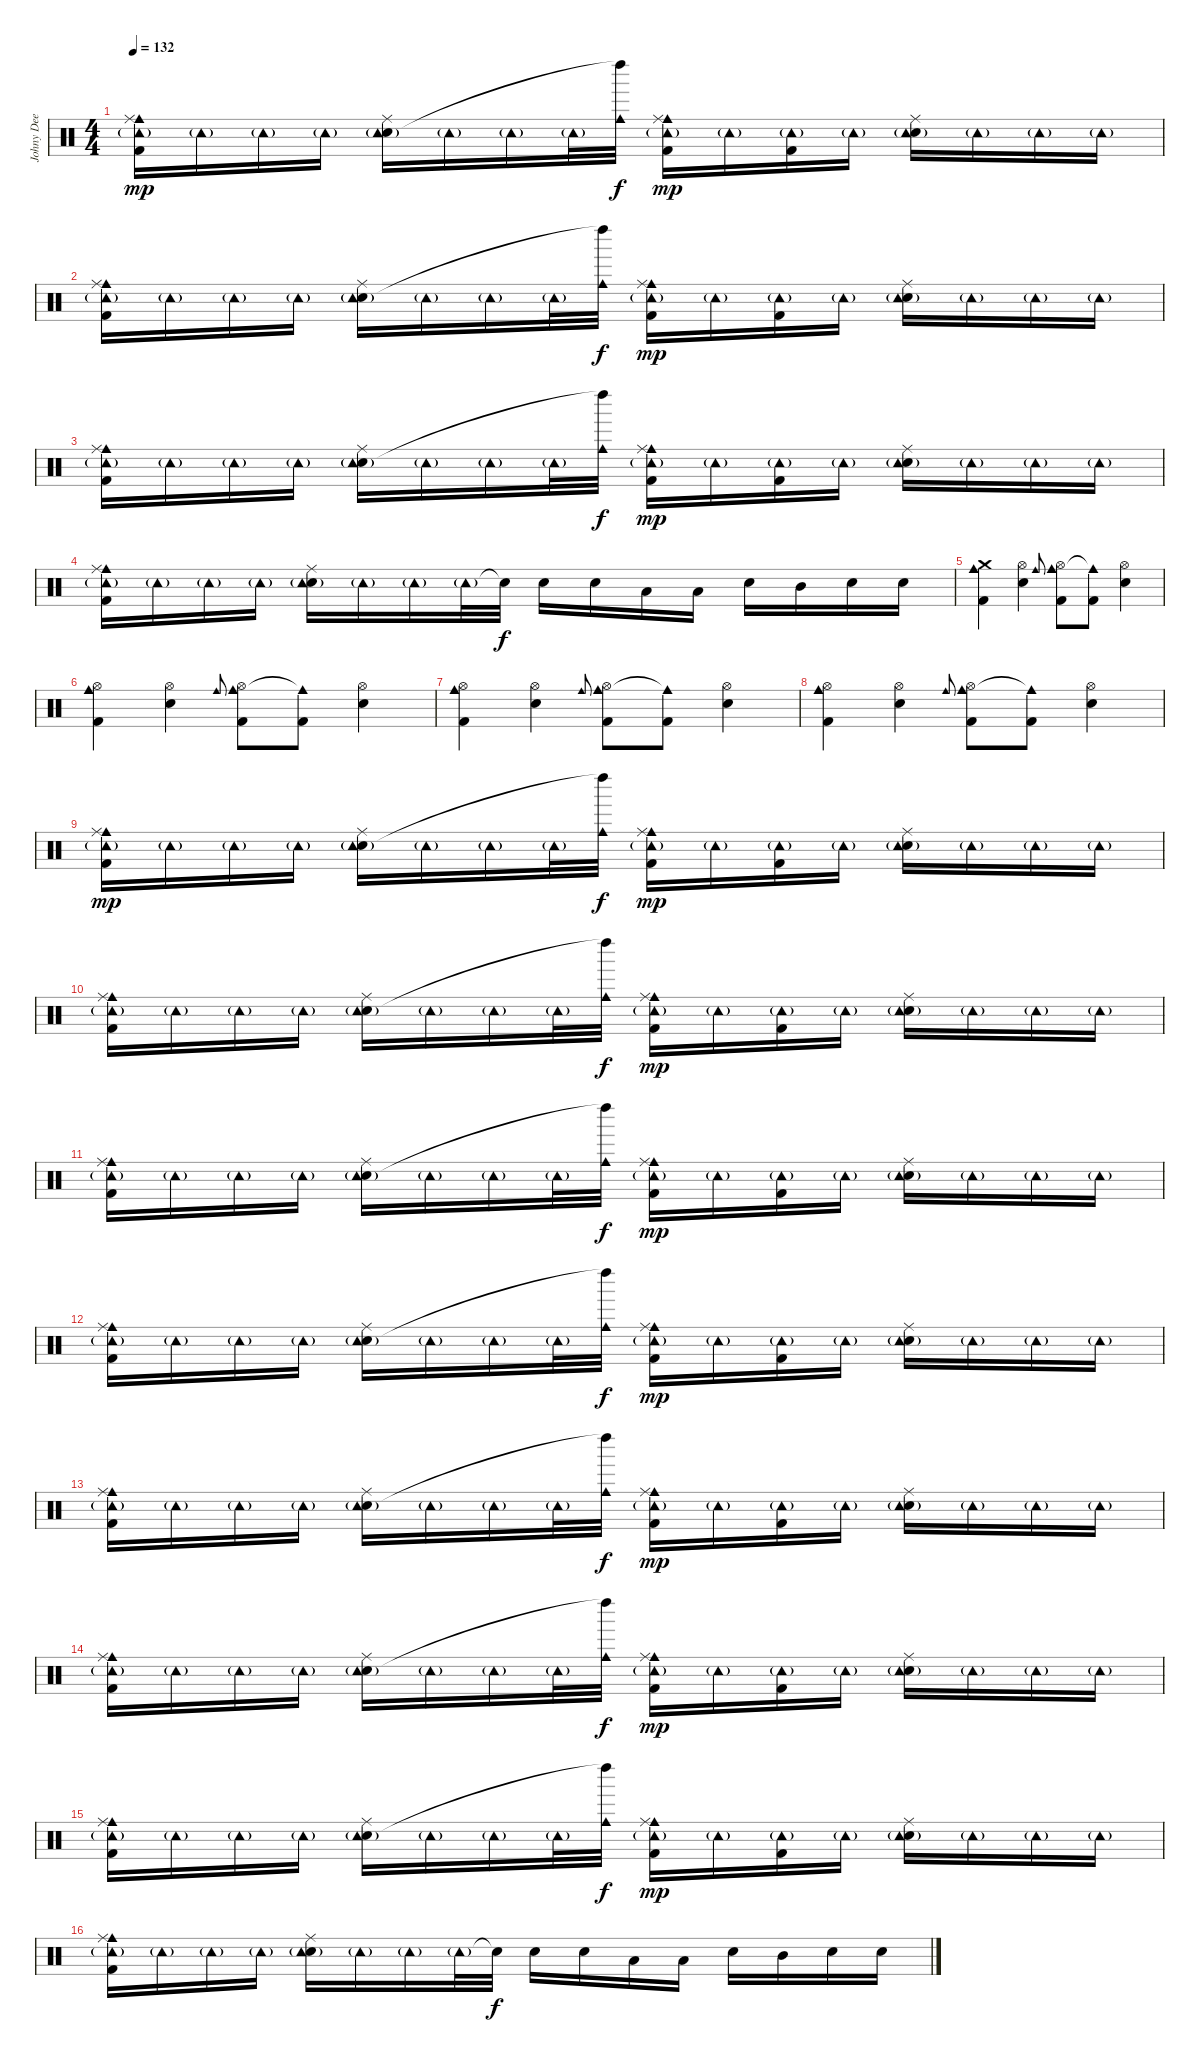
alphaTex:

\track ("Johny Dee" "Johny Dee") {instrument percussion}
\staff {score}
\articulation defaults
\ts (4 4)
\tempo 132
\clef neutral
\ks c
("Cowbell medium (hit)" "Ride (middle)" "Tambourine (hit)"{g} "Kick (hit) 2").16{dy mp} "Tambourine (hit)"{g}.16 "Tambourine (hit)"{g}.16 "Tambourine (hit)"{g}.16 ("Ride (middle)" "Snare (hit) 2" "Tambourine (hit)"{g}).16 "Tambourine (hit)"{g}.16 "Tambourine (hit)"{g}.16 "Tambourine (hit)"{g}.32 ("Cowbell medium (hit)" "Left Maraca (hit)"{t}).32{dy f} ("Cowbell medium (hit)" "Ride (middle)" "Tambourine (hit)"{g} "Kick (hit) 2").16{dy mp} "Tambourine (hit)"{g}.16 ("Tambourine (hit)"{g} "Kick (hit) 2").16 "Tambourine (hit)"{g}.16 ("Ride (middle)" "Snare (hit) 2" "Tambourine (hit)"{g}).16 "Tambourine (hit)"{g}.16 "Tambourine (hit)"{g}.16 "Tambourine (hit)"{g}.16 |
("Cowbell medium (hit)" "Ride (middle)" "Tambourine (hit)"{g} "Kick (hit) 2").16 "Tambourine (hit)"{g}.16 "Tambourine (hit)"{g}.16 "Tambourine (hit)"{g}.16 ("Ride (middle)" "Snare (hit) 2" "Tambourine (hit)"{g}).16 "Tambourine (hit)"{g}.16 "Tambourine (hit)"{g}.16 "Tambourine (hit)"{g}.32 ("Cowbell medium (hit)" "Left Maraca (hit)"{t}).32{dy f} ("Cowbell medium (hit)" "Ride (middle)" "Tambourine (hit)"{g} "Kick (hit) 2").16{dy mp} "Tambourine (hit)"{g}.16 ("Tambourine (hit)"{g} "Kick (hit) 2").16 "Tambourine (hit)"{g}.16 ("Ride (middle)" "Snare (hit) 2" "Tambourine (hit)"{g}).16 "Tambourine (hit)"{g}.16 "Tambourine (hit)"{g}.16 "Tambourine (hit)"{g}.16 |
("Cowbell medium (hit)" "Ride (middle)" "Tambourine (hit)"{g} "Kick (hit) 2").16 "Tambourine (hit)"{g}.16 "Tambourine (hit)"{g}.16 "Tambourine (hit)"{g}.16 ("Ride (middle)" "Snare (hit) 2" "Tambourine (hit)"{g}).16 "Tambourine (hit)"{g}.16 "Tambourine (hit)"{g}.16 "Tambourine (hit)"{g}.32 ("Cowbell medium (hit)" "Left Maraca (hit)"{t}).32{dy f} ("Cowbell medium (hit)" "Ride (middle)" "Tambourine (hit)"{g} "Kick (hit) 2").16{dy mp} "Tambourine (hit)"{g}.16 ("Tambourine (hit)"{g} "Kick (hit) 2").16 "Tambourine (hit)"{g}.16 ("Ride (middle)" "Snare (hit) 2" "Tambourine (hit)"{g}).16 "Tambourine (hit)"{g}.16 "Tambourine (hit)"{g}.16 "Tambourine (hit)"{g}.16 |
("Cowbell medium (hit)" "Ride (middle)" "Tambourine (hit)"{g} "Kick (hit) 2").16 "Tambourine (hit)"{g}.16 "Tambourine (hit)"{g}.16 "Tambourine (hit)"{g}.16 ("Ride (middle)" "Snare (hit) 2" "Tambourine (hit)"{g}).16 "Tambourine (hit)"{g}.16 "Tambourine (hit)"{g}.16 "Tambourine (hit)"{g}.32 "Snare (hit)"{t}.32{dy f} "Snare (hit) 2".16 "Snare (hit) 2".16 "Low Tom (hit)".16 "Low Tom (hit)".16 "Snare (hit) 2".16 "Mid Tom (hit)".16 "Snare (hit) 2".16 "Snare (hit) 2".16 |
("Cowbell medium (hit)" "Kick (hit) 2" "Crash medium (hit)").4 ("Snare (hit) 2" "Hi-Hat (open)").4 "Cowbell medium (hit)".8{gr onbeat} ("Cowbell medium (hit)" "Kick (hit) 2" "Hi-Hat (open)").8 ("Cowbell medium (hit)"{t} "Kick (hit) 2").8 ("Snare (hit) 2" "Hi-Hat (open)").4 |
("Cowbell medium (hit)" "Kick (hit) 2" "Hi-Hat (open)").4 ("Snare (hit) 2" "Hi-Hat (open)").4 "Cowbell medium (hit)".8{gr onbeat} ("Cowbell medium (hit)" "Kick (hit) 2" "Hi-Hat (open)").8 ("Cowbell medium (hit)"{t} "Kick (hit) 2").8 ("Snare (hit) 2" "Hi-Hat (open)").4 |
("Cowbell medium (hit)" "Kick (hit) 2" "Hi-Hat (open)").4 ("Snare (hit) 2" "Hi-Hat (open)").4 "Cowbell medium (hit)".8{gr onbeat} ("Cowbell medium (hit)" "Kick (hit) 2" "Hi-Hat (open)").8 ("Cowbell medium (hit)"{t} "Kick (hit) 2").8 ("Snare (hit) 2" "Hi-Hat (open)").4 |
("Cowbell medium (hit)" "Kick (hit) 2" "Hi-Hat (open)").4 ("Snare (hit) 2" "Hi-Hat (open)").4 "Cowbell medium (hit)".8{gr onbeat} ("Cowbell medium (hit)" "Kick (hit) 2" "Hi-Hat (open)").8 ("Cowbell medium (hit)"{t} "Kick (hit) 2").8 ("Snare (hit) 2" "Hi-Hat (open)").4 |
("Cowbell medium (hit)" "Ride (middle)" "Tambourine (hit)"{g} "Kick (hit) 2").16{dy mp} "Tambourine (hit)"{g}.16 "Tambourine (hit)"{g}.16 "Tambourine (hit)"{g}.16 ("Ride (middle)" "Snare (hit) 2" "Tambourine (hit)"{g}).16 "Tambourine (hit)"{g}.16 "Tambourine (hit)"{g}.16 "Tambourine (hit)"{g}.32 ("Cowbell medium (hit)" "Left Maraca (hit)"{t}).32{dy f} ("Cowbell medium (hit)" "Ride (middle)" "Tambourine (hit)"{g} "Kick (hit) 2").16{dy mp} "Tambourine (hit)"{g}.16 ("Tambourine (hit)"{g} "Kick (hit) 2").16 "Tambourine (hit)"{g}.16 ("Ride (middle)" "Snare (hit) 2" "Tambourine (hit)"{g}).16 "Tambourine (hit)"{g}.16 "Tambourine (hit)"{g}.16 "Tambourine (hit)"{g}.16 |
("Cowbell medium (hit)" "Ride (middle)" "Tambourine (hit)"{g} "Kick (hit) 2").16 "Tambourine (hit)"{g}.16 "Tambourine (hit)"{g}.16 "Tambourine (hit)"{g}.16 ("Ride (middle)" "Snare (hit) 2" "Tambourine (hit)"{g}).16 "Tambourine (hit)"{g}.16 "Tambourine (hit)"{g}.16 "Tambourine (hit)"{g}.32 ("Cowbell medium (hit)" "Left Maraca (hit)"{t}).32{dy f} ("Cowbell medium (hit)" "Ride (middle)" "Tambourine (hit)"{g} "Kick (hit) 2").16{dy mp} "Tambourine (hit)"{g}.16 ("Tambourine (hit)"{g} "Kick (hit) 2").16 "Tambourine (hit)"{g}.16 ("Ride (middle)" "Snare (hit) 2" "Tambourine (hit)"{g}).16 "Tambourine (hit)"{g}.16 "Tambourine (hit)"{g}.16 "Tambourine (hit)"{g}.16 |
("Cowbell medium (hit)" "Ride (middle)" "Tambourine (hit)"{g} "Kick (hit) 2").16 "Tambourine (hit)"{g}.16 "Tambourine (hit)"{g}.16 "Tambourine (hit)"{g}.16 ("Ride (middle)" "Snare (hit) 2" "Tambourine (hit)"{g}).16 "Tambourine (hit)"{g}.16 "Tambourine (hit)"{g}.16 "Tambourine (hit)"{g}.32 ("Cowbell medium (hit)" "Left Maraca (hit)"{t}).32{dy f} ("Cowbell medium (hit)" "Ride (middle)" "Tambourine (hit)"{g} "Kick (hit) 2").16{dy mp} "Tambourine (hit)"{g}.16 ("Tambourine (hit)"{g} "Kick (hit) 2").16 "Tambourine (hit)"{g}.16 ("Ride (middle)" "Snare (hit) 2" "Tambourine (hit)"{g}).16 "Tambourine (hit)"{g}.16 "Tambourine (hit)"{g}.16 "Tambourine (hit)"{g}.16 |
("Cowbell medium (hit)" "Ride (middle)" "Tambourine (hit)"{g} "Kick (hit) 2").16 "Tambourine (hit)"{g}.16 "Tambourine (hit)"{g}.16 "Tambourine (hit)"{g}.16 ("Ride (middle)" "Snare (hit) 2" "Tambourine (hit)"{g}).16 "Tambourine (hit)"{g}.16 "Tambourine (hit)"{g}.16 "Tambourine (hit)"{g}.32 ("Cowbell medium (hit)" "Left Maraca (hit)"{t}).32{dy f} ("Cowbell medium (hit)" "Ride (middle)" "Tambourine (hit)"{g} "Kick (hit) 2").16{dy mp} "Tambourine (hit)"{g}.16 ("Tambourine (hit)"{g} "Kick (hit) 2").16 "Tambourine (hit)"{g}.16 ("Ride (middle)" "Snare (hit) 2" "Tambourine (hit)"{g}).16 "Tambourine (hit)"{g}.16 "Tambourine (hit)"{g}.16 "Tambourine (hit)"{g}.16 |
("Cowbell medium (hit)" "Ride (middle)" "Tambourine (hit)"{g} "Kick (hit) 2").16 "Tambourine (hit)"{g}.16 "Tambourine (hit)"{g}.16 "Tambourine (hit)"{g}.16 ("Ride (middle)" "Snare (hit) 2" "Tambourine (hit)"{g}).16 "Tambourine (hit)"{g}.16 "Tambourine (hit)"{g}.16 "Tambourine (hit)"{g}.32 ("Cowbell medium (hit)" "Left Maraca (hit)"{t}).32{dy f} ("Cowbell medium (hit)" "Ride (middle)" "Tambourine (hit)"{g} "Kick (hit) 2").16{dy mp} "Tambourine (hit)"{g}.16 ("Tambourine (hit)"{g} "Kick (hit) 2").16 "Tambourine (hit)"{g}.16 ("Ride (middle)" "Snare (hit) 2" "Tambourine (hit)"{g}).16 "Tambourine (hit)"{g}.16 "Tambourine (hit)"{g}.16 "Tambourine (hit)"{g}.16 |
("Cowbell medium (hit)" "Ride (middle)" "Tambourine (hit)"{g} "Kick (hit) 2").16 "Tambourine (hit)"{g}.16 "Tambourine (hit)"{g}.16 "Tambourine (hit)"{g}.16 ("Ride (middle)" "Snare (hit) 2" "Tambourine (hit)"{g}).16 "Tambourine (hit)"{g}.16 "Tambourine (hit)"{g}.16 "Tambourine (hit)"{g}.32 ("Cowbell medium (hit)" "Left Maraca (hit)"{t}).32{dy f} ("Cowbell medium (hit)" "Ride (middle)" "Tambourine (hit)"{g} "Kick (hit) 2").16{dy mp} "Tambourine (hit)"{g}.16 ("Tambourine (hit)"{g} "Kick (hit) 2").16 "Tambourine (hit)"{g}.16 ("Ride (middle)" "Snare (hit) 2" "Tambourine (hit)"{g}).16 "Tambourine (hit)"{g}.16 "Tambourine (hit)"{g}.16 "Tambourine (hit)"{g}.16 |
("Cowbell medium (hit)" "Ride (middle)" "Tambourine (hit)"{g} "Kick (hit) 2").16 "Tambourine (hit)"{g}.16 "Tambourine (hit)"{g}.16 "Tambourine (hit)"{g}.16 ("Ride (middle)" "Snare (hit) 2" "Tambourine (hit)"{g}).16 "Tambourine (hit)"{g}.16 "Tambourine (hit)"{g}.16 "Tambourine (hit)"{g}.32 ("Cowbell medium (hit)" "Left Maraca (hit)"{t}).32{dy f} ("Cowbell medium (hit)" "Ride (middle)" "Tambourine (hit)"{g} "Kick (hit) 2").16{dy mp} "Tambourine (hit)"{g}.16 ("Tambourine (hit)"{g} "Kick (hit) 2").16 "Tambourine (hit)"{g}.16 ("Ride (middle)" "Snare (hit) 2" "Tambourine (hit)"{g}).16 "Tambourine (hit)"{g}.16 "Tambourine (hit)"{g}.16 "Tambourine (hit)"{g}.16 |
("Cowbell medium (hit)" "Ride (middle)" "Tambourine (hit)"{g} "Kick (hit) 2").16 "Tambourine (hit)"{g}.16 "Tambourine (hit)"{g}.16 "Tambourine (hit)"{g}.16 ("Ride (middle)" "Snare (hit) 2" "Tambourine (hit)"{g}).16 "Tambourine (hit)"{g}.16 "Tambourine (hit)"{g}.16 "Tambourine (hit)"{g}.32 "Snare (hit)"{t}.32{dy f} "Snare (hit) 2".16 "Snare (hit) 2".16 "Low Tom (hit)".16 "Low Tom (hit)".16 "Snare (hit) 2".16 "Mid Tom (hit)".16 "Snare (hit) 2".16 "Snare (hit) 2".16
